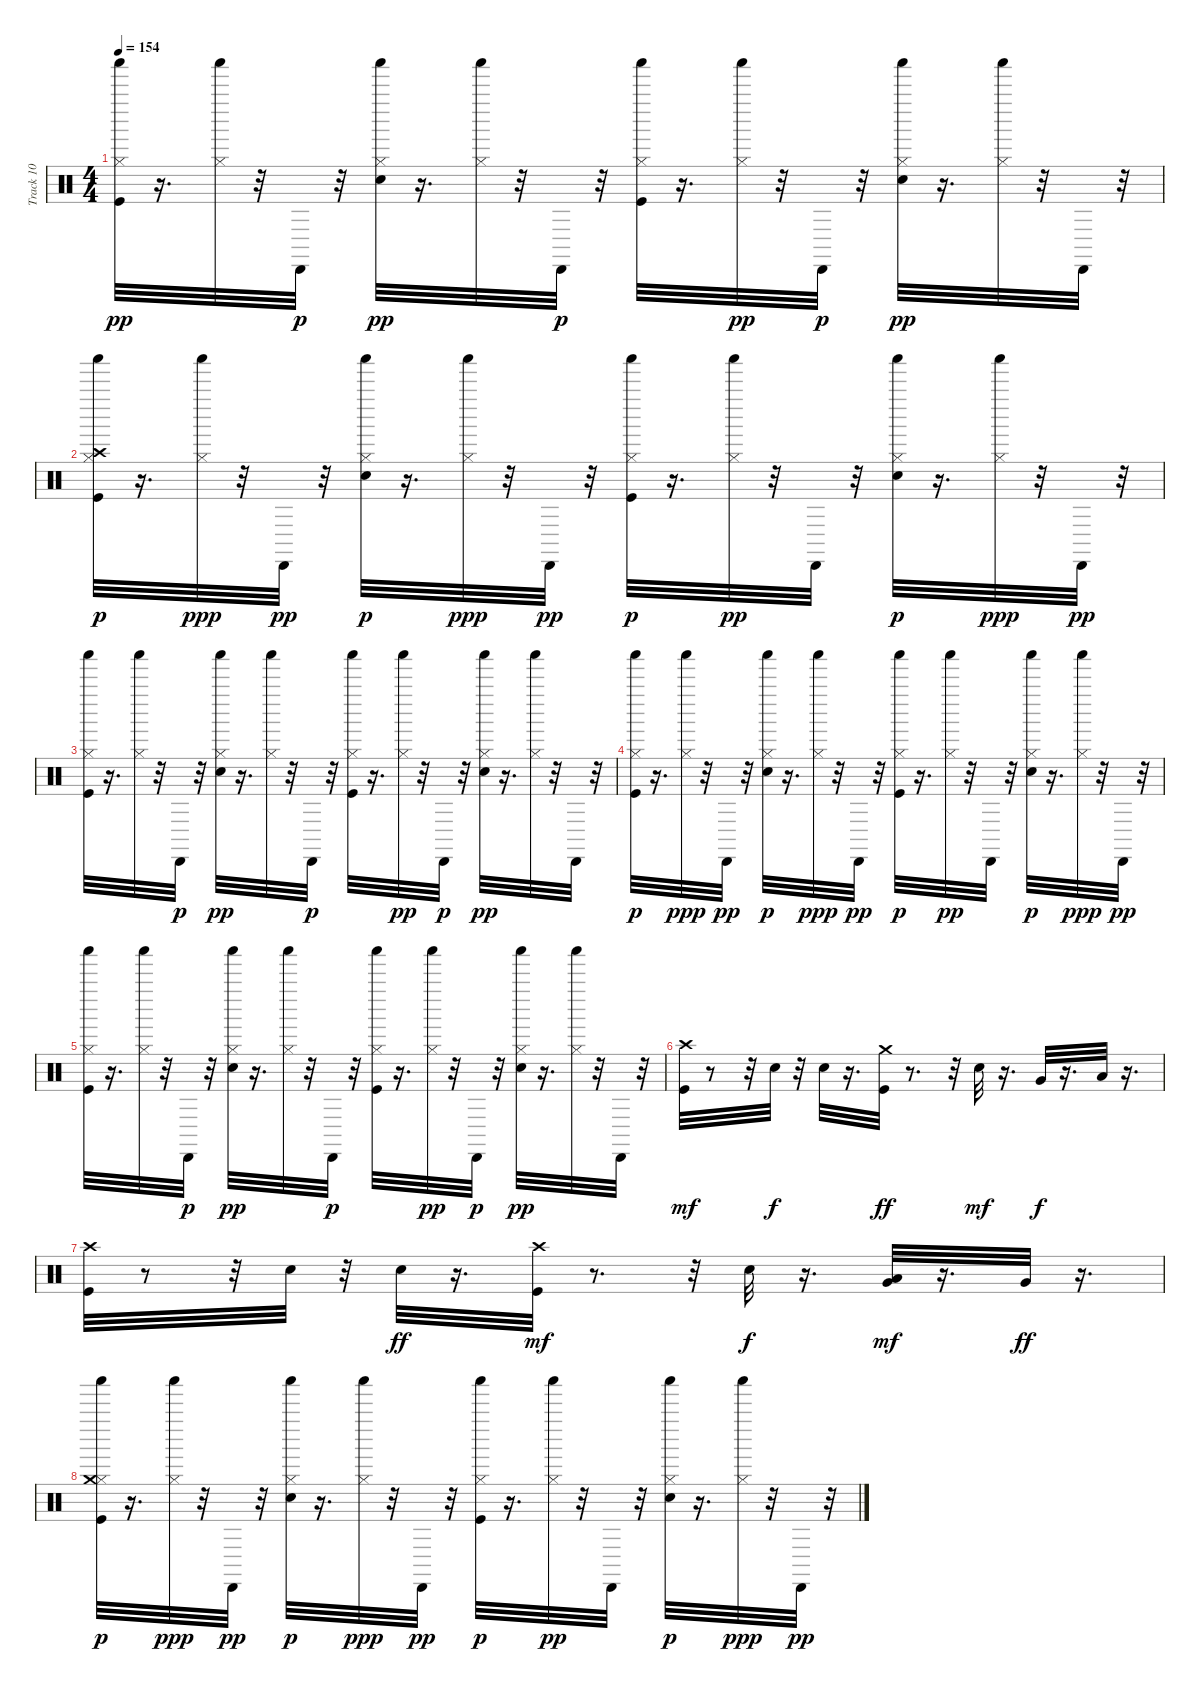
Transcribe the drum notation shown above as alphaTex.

\track ("Track 10" "Track 10") {instrument percussion}
\staff {score}
\articulation defaults
\ts (4 4)
\tempo 154
\clef neutral
\ks c
("Kick (hit)" "Hi-Hat (closed)" "Shaker (hit)").32{dy pp} r.16{d} ("Hi-Hat (closed)" "Shaker (hit)").32 r.32 "Cabasa (hit)".32{dy p} r.32 ("Electric Snare (hit)" "Hi-Hat (closed)" "Shaker (hit)").32{dy pp} r.16{d} ("Hi-Hat (closed)" "Shaker (hit)").32 r.32 "Cabasa (hit)".32{dy p} r.32 ("Kick (hit)" "Hi-Hat (closed)" "Shaker (hit)").32 r.16{d} ("Hi-Hat (closed)" "Shaker (hit)").32{dy pp} r.32 "Cabasa (hit)".32{dy p} r.32 ("Electric Snare (hit)" "Hi-Hat (closed)" "Shaker (hit)").32{dy pp} r.16{d} ("Hi-Hat (closed)" "Shaker (hit)").32 r.32 "Cabasa (hit)".32 r.32 |
("Kick (hit)" "Hi-Hat (closed)" "Crash high (hit)" "Shaker (hit)").32{dy p} r.16{d} ("Hi-Hat (closed)" "Shaker (hit)").32{dy ppp} r.32 "Cabasa (hit)".32{dy pp} r.32 ("Electric Snare (hit)" "Hi-Hat (closed)" "Shaker (hit)").32{dy p} r.16{d} ("Hi-Hat (closed)" "Shaker (hit)").32{dy ppp} r.32 "Cabasa (hit)".32{dy pp} r.32 ("Kick (hit)" "Hi-Hat (closed)" "Shaker (hit)").32{dy p} r.16{d} ("Hi-Hat (closed)" "Shaker (hit)").32{dy pp} r.32 "Cabasa (hit)".32 r.32 ("Electric Snare (hit)" "Hi-Hat (closed)" "Shaker (hit)").32{dy p} r.16{d} ("Hi-Hat (closed)" "Shaker (hit)").32{dy ppp} r.32 "Cabasa (hit)".32{dy pp} r.32 |
("Kick (hit)" "Hi-Hat (closed)" "Shaker (hit)").32 r.16{d} ("Hi-Hat (closed)" "Shaker (hit)").32 r.32 "Cabasa (hit)".32{dy p} r.32 ("Electric Snare (hit)" "Hi-Hat (closed)" "Shaker (hit)").32{dy pp} r.16{d} ("Hi-Hat (closed)" "Shaker (hit)").32 r.32 "Cabasa (hit)".32{dy p} r.32 ("Kick (hit)" "Hi-Hat (closed)" "Shaker (hit)").32 r.16{d} ("Hi-Hat (closed)" "Shaker (hit)").32{dy pp} r.32 "Cabasa (hit)".32{dy p} r.32 ("Electric Snare (hit)" "Hi-Hat (closed)" "Shaker (hit)").32{dy pp} r.16{d} ("Hi-Hat (closed)" "Shaker (hit)").32 r.32 "Cabasa (hit)".32 r.32 |
("Kick (hit)" "Hi-Hat (closed)" "Shaker (hit)").32{dy p} r.16{d} ("Hi-Hat (closed)" "Shaker (hit)").32{dy ppp} r.32 "Cabasa (hit)".32{dy pp} r.32 ("Electric Snare (hit)" "Hi-Hat (closed)" "Shaker (hit)").32{dy p} r.16{d} ("Hi-Hat (closed)" "Shaker (hit)").32{dy ppp} r.32 "Cabasa (hit)".32{dy pp} r.32 ("Kick (hit)" "Hi-Hat (closed)" "Shaker (hit)").32{dy p} r.16{d} ("Hi-Hat (closed)" "Shaker (hit)").32{dy pp} r.32 "Cabasa (hit)".32 r.32 ("Electric Snare (hit)" "Hi-Hat (closed)" "Shaker (hit)").32{dy p} r.16{d} ("Hi-Hat (closed)" "Shaker (hit)").32{dy ppp} r.32 "Cabasa (hit)".32{dy pp} r.32 |
("Kick (hit)" "Hi-Hat (closed)" "Shaker (hit)").32 r.16{d} ("Hi-Hat (closed)" "Shaker (hit)").32 r.32 "Cabasa (hit)".32{dy p} r.32 ("Electric Snare (hit)" "Hi-Hat (closed)" "Shaker (hit)").32{dy pp} r.16{d} ("Hi-Hat (closed)" "Shaker (hit)").32 r.32 "Cabasa (hit)".32{dy p} r.32 ("Kick (hit)" "Hi-Hat (closed)" "Shaker (hit)").32 r.16{d} ("Hi-Hat (closed)" "Shaker (hit)").32{dy pp} r.32 "Cabasa (hit)".32{dy p} r.32 ("Electric Snare (hit)" "Hi-Hat (closed)" "Shaker (hit)").32{dy pp} r.16{d} ("Hi-Hat (closed)" "Shaker (hit)").32 r.32 "Cabasa (hit)".32 r.32 |
("Kick (hit)" "Crash high (hit)").32{dy mf} r.8 r.32 "Electric Snare (hit)".32{dy f} r.32 "Electric Snare (hit)".32 r.16{d} ("Kick (hit)" "Crash medium (hit)").32{dy ff} r.8{d} r.32 "Electric Snare (hit)".32{dy mf} r.16{d} "Very Low Tom (hit)".32{dy f} r.16{d} "Low Tom (hit)".32 r.16{d} |
("Kick (hit)" "Crash high (hit)").32 r.8 r.32 "Electric Snare (hit)".32 r.32 "Electric Snare (hit)".32{dy ff} r.16{d} ("Kick (hit)" "Crash high (hit)").32{dy mf} r.8{d} r.32 "Electric Snare (hit)".32{dy f} r.16{d} ("Very Low Tom (hit)" "Low Tom (hit)").32{dy mf} r.16{d} "Very Low Tom (hit)".32{dy ff} r.16{d} |
("Kick (hit)" "Hi-Hat (closed)" "Crash medium (hit)" "Shaker (hit)").32{dy p} r.16{d} ("Hi-Hat (closed)" "Shaker (hit)").32{dy ppp} r.32 "Cabasa (hit)".32{dy pp} r.32 ("Electric Snare (hit)" "Hi-Hat (closed)" "Shaker (hit)").32{dy p} r.16{d} ("Hi-Hat (closed)" "Shaker (hit)").32{dy ppp} r.32 "Cabasa (hit)".32{dy pp} r.32 ("Kick (hit)" "Hi-Hat (closed)" "Shaker (hit)").32{dy p} r.16{d} ("Hi-Hat (closed)" "Shaker (hit)").32{dy pp} r.32 "Cabasa (hit)".32 r.32 ("Electric Snare (hit)" "Hi-Hat (closed)" "Shaker (hit)").32{dy p} r.16{d} ("Hi-Hat (closed)" "Shaker (hit)").32{dy ppp} r.32 "Cabasa (hit)".32{dy pp} r.32
